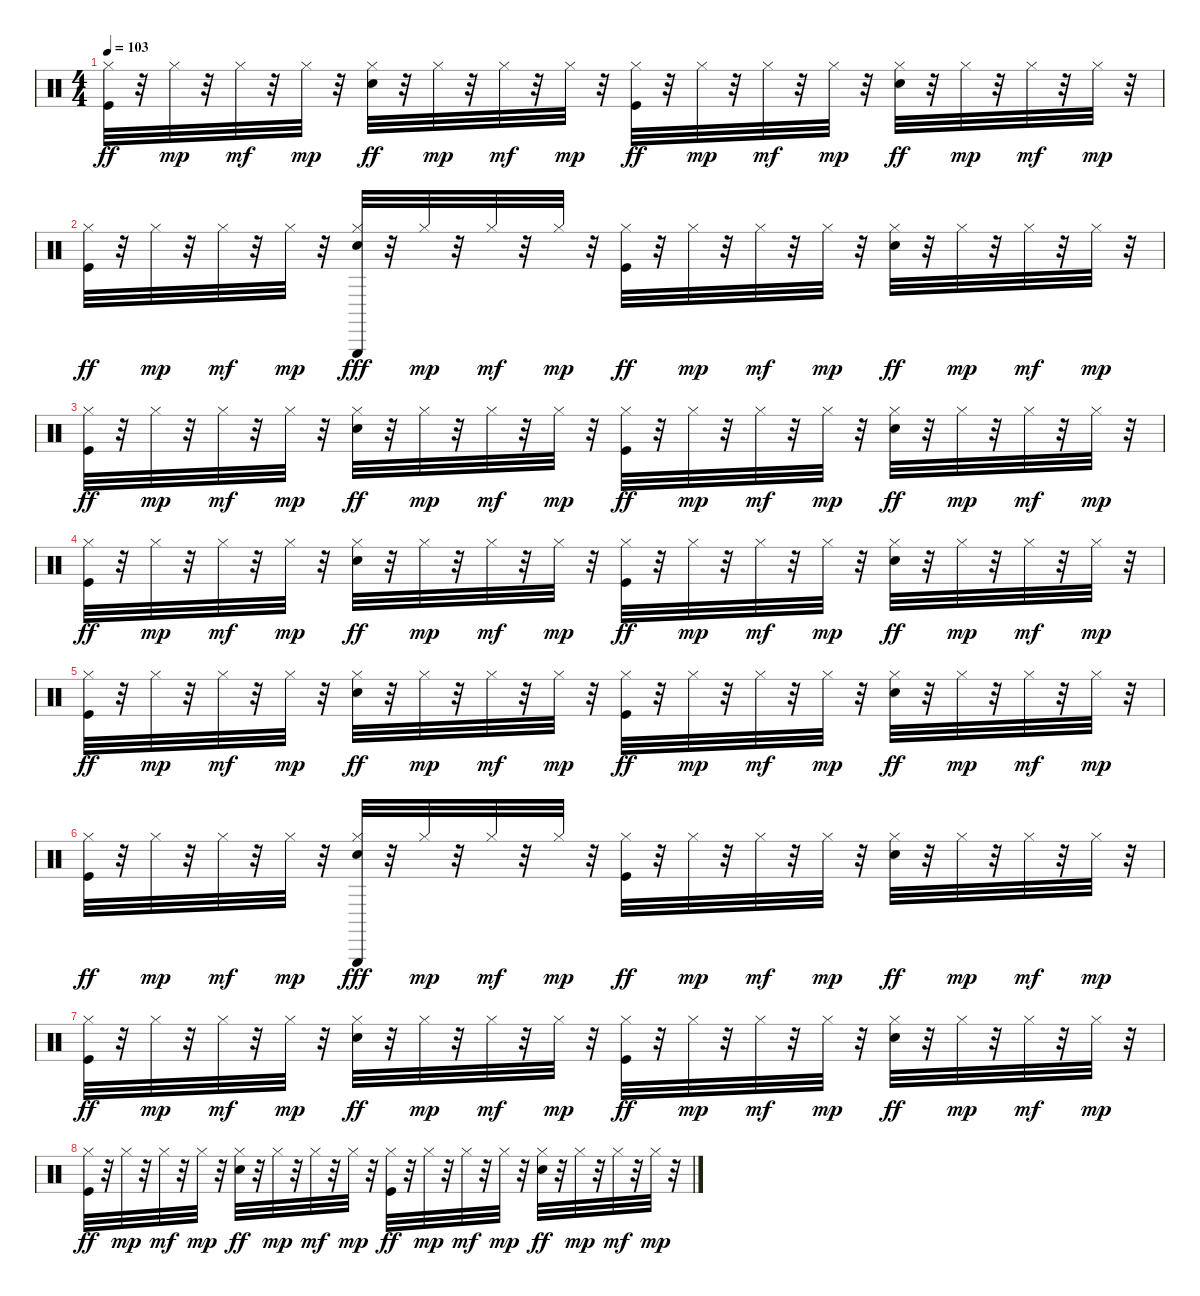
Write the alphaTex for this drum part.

\track "" {instrument percussion}
\staff {score}
\articulation defaults
\ts (4 4)
\tempo 103
\clef neutral
\ks c
("Kick (hit)" "Hi-Hat (closed)").32{dy ff} r.32 "Hi-Hat (closed)".32{dy mp} r.32 "Hi-Hat (closed)".32{dy mf} r.32 "Hi-Hat (closed)".32{dy mp} r.32 ("Snare (hit) 2" "Hi-Hat (closed)").32{dy ff} r.32 "Hi-Hat (closed)".32{dy mp} r.32 "Hi-Hat (closed)".32{dy mf} r.32 "Hi-Hat (closed)".32{dy mp} r.32 ("Kick (hit)" "Hi-Hat (closed)").32{dy ff} r.32 "Hi-Hat (closed)".32{dy mp} r.32 "Hi-Hat (closed)".32{dy mf} r.32 "Hi-Hat (closed)".32{dy mp} r.32 ("Snare (hit) 2" "Hi-Hat (closed)").32{dy ff} r.32 "Hi-Hat (closed)".32{dy mp} r.32 "Hi-Hat (closed)".32{dy mf} r.32 "Hi-Hat (closed)".32{dy mp} r.32 |
("Kick (hit)" "Hi-Hat (closed)").32{dy ff} r.32 "Hi-Hat (closed)".32{dy mp} r.32 "Hi-Hat (closed)".32{dy mf} r.32 "Hi-Hat (closed)".32{dy mp} r.32 ("Snare (hit) 2" "Hi-Hat (closed)" "Triangle (hit)").32{dy fff} r.32 "Hi-Hat (closed)".32{dy mp} r.32 "Hi-Hat (closed)".32{dy mf} r.32 "Hi-Hat (closed)".32{dy mp} r.32 ("Kick (hit)" "Hi-Hat (closed)").32{dy ff} r.32 "Hi-Hat (closed)".32{dy mp} r.32 "Hi-Hat (closed)".32{dy mf} r.32 "Hi-Hat (closed)".32{dy mp} r.32 ("Snare (hit) 2" "Hi-Hat (closed)").32{dy ff} r.32 "Hi-Hat (closed)".32{dy mp} r.32 "Hi-Hat (closed)".32{dy mf} r.32 "Hi-Hat (closed)".32{dy mp} r.32 |
("Kick (hit)" "Hi-Hat (closed)").32{dy ff} r.32 "Hi-Hat (closed)".32{dy mp} r.32 "Hi-Hat (closed)".32{dy mf} r.32 "Hi-Hat (closed)".32{dy mp} r.32 ("Snare (hit) 2" "Hi-Hat (closed)").32{dy ff} r.32 "Hi-Hat (closed)".32{dy mp} r.32 "Hi-Hat (closed)".32{dy mf} r.32 "Hi-Hat (closed)".32{dy mp} r.32 ("Kick (hit)" "Hi-Hat (closed)").32{dy ff} r.32 "Hi-Hat (closed)".32{dy mp} r.32 "Hi-Hat (closed)".32{dy mf} r.32 "Hi-Hat (closed)".32{dy mp} r.32 ("Snare (hit) 2" "Hi-Hat (closed)").32{dy ff} r.32 "Hi-Hat (closed)".32{dy mp} r.32 "Hi-Hat (closed)".32{dy mf} r.32 "Hi-Hat (closed)".32{dy mp} r.32 |
("Kick (hit)" "Hi-Hat (closed)").32{dy ff} r.32 "Hi-Hat (closed)".32{dy mp} r.32 "Hi-Hat (closed)".32{dy mf} r.32 "Hi-Hat (closed)".32{dy mp} r.32 ("Snare (hit) 2" "Hi-Hat (closed)").32{dy ff} r.32 "Hi-Hat (closed)".32{dy mp} r.32 "Hi-Hat (closed)".32{dy mf} r.32 "Hi-Hat (closed)".32{dy mp} r.32 ("Kick (hit)" "Hi-Hat (closed)").32{dy ff} r.32 "Hi-Hat (closed)".32{dy mp} r.32 "Hi-Hat (closed)".32{dy mf} r.32 "Hi-Hat (closed)".32{dy mp} r.32 ("Snare (hit) 2" "Hi-Hat (closed)").32{dy ff} r.32 "Hi-Hat (closed)".32{dy mp} r.32 "Hi-Hat (closed)".32{dy mf} r.32 "Hi-Hat (closed)".32{dy mp} r.32 |
("Kick (hit)" "Hi-Hat (closed)").32{dy ff} r.32 "Hi-Hat (closed)".32{dy mp} r.32 "Hi-Hat (closed)".32{dy mf} r.32 "Hi-Hat (closed)".32{dy mp} r.32 ("Snare (hit) 2" "Hi-Hat (closed)").32{dy ff} r.32 "Hi-Hat (closed)".32{dy mp} r.32 "Hi-Hat (closed)".32{dy mf} r.32 "Hi-Hat (closed)".32{dy mp} r.32 ("Kick (hit)" "Hi-Hat (closed)").32{dy ff} r.32 "Hi-Hat (closed)".32{dy mp} r.32 "Hi-Hat (closed)".32{dy mf} r.32 "Hi-Hat (closed)".32{dy mp} r.32 ("Snare (hit) 2" "Hi-Hat (closed)").32{dy ff} r.32 "Hi-Hat (closed)".32{dy mp} r.32 "Hi-Hat (closed)".32{dy mf} r.32 "Hi-Hat (closed)".32{dy mp} r.32 |
("Kick (hit)" "Hi-Hat (closed)").32{dy ff} r.32 "Hi-Hat (closed)".32{dy mp} r.32 "Hi-Hat (closed)".32{dy mf} r.32 "Hi-Hat (closed)".32{dy mp} r.32 ("Snare (hit) 2" "Hi-Hat (closed)" "Triangle (hit)").32{dy fff} r.32 "Hi-Hat (closed)".32{dy mp} r.32 "Hi-Hat (closed)".32{dy mf} r.32 "Hi-Hat (closed)".32{dy mp} r.32 ("Kick (hit)" "Hi-Hat (closed)").32{dy ff} r.32 "Hi-Hat (closed)".32{dy mp} r.32 "Hi-Hat (closed)".32{dy mf} r.32 "Hi-Hat (closed)".32{dy mp} r.32 ("Snare (hit) 2" "Hi-Hat (closed)").32{dy ff} r.32 "Hi-Hat (closed)".32{dy mp} r.32 "Hi-Hat (closed)".32{dy mf} r.32 "Hi-Hat (closed)".32{dy mp} r.32 |
("Kick (hit)" "Hi-Hat (closed)").32{dy ff} r.32 "Hi-Hat (closed)".32{dy mp} r.32 "Hi-Hat (closed)".32{dy mf} r.32 "Hi-Hat (closed)".32{dy mp} r.32 ("Snare (hit) 2" "Hi-Hat (closed)").32{dy ff} r.32 "Hi-Hat (closed)".32{dy mp} r.32 "Hi-Hat (closed)".32{dy mf} r.32 "Hi-Hat (closed)".32{dy mp} r.32 ("Kick (hit)" "Hi-Hat (closed)").32{dy ff} r.32 "Hi-Hat (closed)".32{dy mp} r.32 "Hi-Hat (closed)".32{dy mf} r.32 "Hi-Hat (closed)".32{dy mp} r.32 ("Snare (hit) 2" "Hi-Hat (closed)").32{dy ff} r.32 "Hi-Hat (closed)".32{dy mp} r.32 "Hi-Hat (closed)".32{dy mf} r.32 "Hi-Hat (closed)".32{dy mp} r.32 |
("Kick (hit)" "Hi-Hat (closed)").32{dy ff} r.32 "Hi-Hat (closed)".32{dy mp} r.32 "Hi-Hat (closed)".32{dy mf} r.32 "Hi-Hat (closed)".32{dy mp} r.32 ("Snare (hit) 2" "Hi-Hat (closed)").32{dy ff} r.32 "Hi-Hat (closed)".32{dy mp} r.32 "Hi-Hat (closed)".32{dy mf} r.32 "Hi-Hat (closed)".32{dy mp} r.32 ("Kick (hit)" "Hi-Hat (closed)").32{dy ff} r.32 "Hi-Hat (closed)".32{dy mp} r.32 "Hi-Hat (closed)".32{dy mf} r.32 "Hi-Hat (closed)".32{dy mp} r.32 ("Snare (hit) 2" "Hi-Hat (closed)").32{dy ff} r.32 "Hi-Hat (closed)".32{dy mp} r.32 "Hi-Hat (closed)".32{dy mf} r.32 "Hi-Hat (closed)".32{dy mp} r.32
